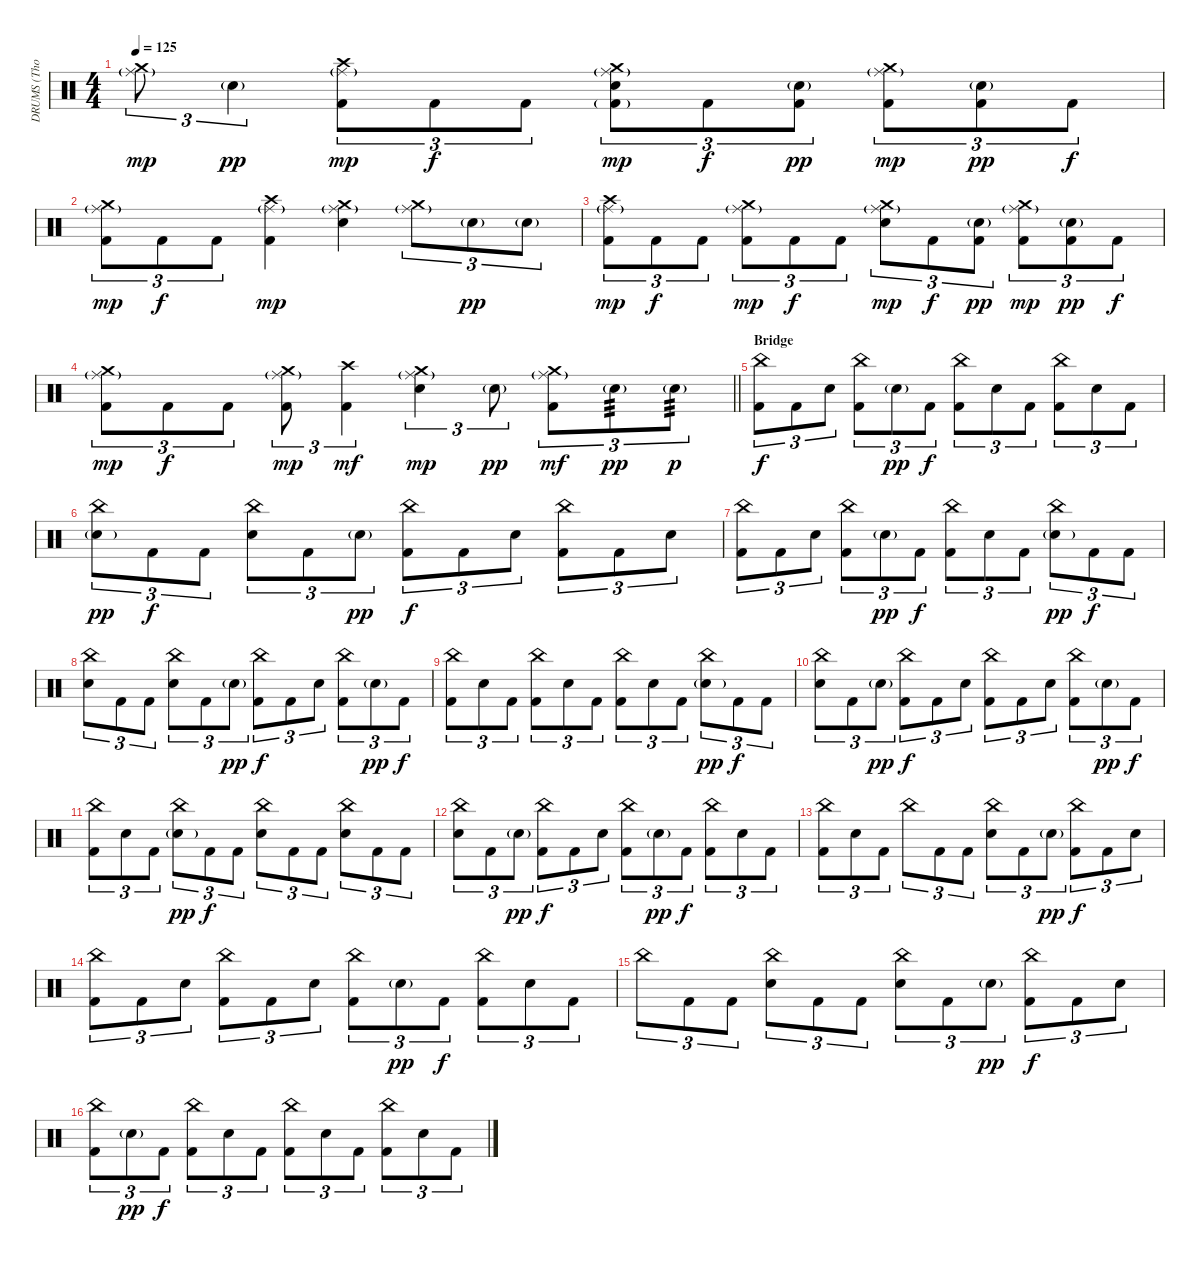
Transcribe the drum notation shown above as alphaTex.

\track ("DRUMS (Thomas Haake)" "DRUMS (Tho") {instrument percussion}
\staff {score}
\articulation defaults
\ts (4 4)
\tempo 125
\clef neutral
\ks c
("Crash medium (hit)" "Ride (middle)"{g}).8{tu (3 2) dy mp} "Electric Snare (hit)"{g}.4{tu (3 2) dy pp} ("Crash high (hit)" "Ride (middle)"{g} "Kick (hit) 2").8{tu (3 2) dy mp} "Kick (hit) 2".8{tu (3 2) dy f} "Kick (hit) 2".8{tu (3 2)} ("Crash medium (hit)" "Ride (middle)"{g} "Electric Snare (hit)" "Kick (hit) 2"{g}).8{tu (3 2) dy mp} "Kick (hit) 2".8{tu (3 2) dy f} ("Electric Snare (hit)"{g} "Kick (hit) 2").8{tu (3 2) dy pp} ("Crash medium (hit)" "Ride (middle)"{g} "Kick (hit) 2").8{tu (3 2) dy mp} ("Electric Snare (hit)"{g} "Kick (hit) 2").8{tu (3 2) dy pp} "Kick (hit) 2".8{tu (3 2) dy f} |
("Crash medium (hit)" "Ride (middle)"{g} "Kick (hit) 2").8{tu (3 2) dy mp} "Kick (hit) 2".8{tu (3 2) dy f} "Kick (hit) 2".8{tu (3 2)} ("Crash high (hit)" "Ride (middle)"{g} "Kick (hit) 2").4{dy mp} ("Crash medium (hit)" "Ride (middle)"{g} "Electric Snare (hit)").4 ("Crash medium (hit)" "Ride (middle)"{g}).8{tu (3 2)} "Electric Snare (hit)"{g}.8{tu (3 2) dy pp} "Electric Snare (hit)"{g}.8{tu (3 2)} |
("Crash high (hit)" "Ride (middle)"{g} "Kick (hit) 2").8{tu (3 2) dy mp} "Kick (hit) 2".8{tu (3 2) dy f} "Kick (hit) 2".8{tu (3 2)} ("Crash medium (hit)" "Ride (middle)"{g} "Kick (hit) 2").8{tu (3 2) dy mp} "Kick (hit) 2".8{tu (3 2) dy f} "Kick (hit) 2".8{tu (3 2)} ("Crash medium (hit)" "Ride (middle)"{g} "Electric Snare (hit)").8{tu (3 2) dy mp} "Kick (hit) 2".8{tu (3 2) dy f} ("Electric Snare (hit)"{g} "Kick (hit) 2").8{tu (3 2) dy pp} ("Crash medium (hit)" "Ride (middle)"{g} "Kick (hit) 2").8{tu (3 2) dy mp} ("Electric Snare (hit)"{g} "Kick (hit) 2").8{tu (3 2) dy pp} "Kick (hit) 2".8{tu (3 2) dy f} |
\barLineRight lightlight
("Crash medium (hit)" "Ride (middle)"{g} "Kick (hit) 2").8{tu (3 2) dy mp} "Kick (hit) 2".8{tu (3 2) dy f} "Kick (hit) 2".8{tu (3 2)} ("Crash medium (hit)" "Ride (middle)"{g} "Kick (hit) 2").8{tu (3 2) dy mp} ("Crash high (hit)" "Kick (hit) 2").4{tu (3 2) dy mf} ("Crash medium (hit)" "Ride (middle)"{g} "Electric Snare (hit)").4{tu (3 2) dy mp} "Electric Snare (hit)"{g}.8{tu (3 2) dy pp} ("Crash medium (hit)" "Ride (middle)"{g} "Kick (hit) 2").8{tu (3 2) dy mf} "Electric Snare (hit)"{g}.8{tu (3 2) tp 3 dy pp} "Electric Snare (hit)"{g}.8{tu (3 2) tp 3 dy p} |
\section ("" "Bridge")
("China (hit)" "Kick (hit) 2").8{tu (3 2) dy f} "Kick (hit) 2".8{tu (3 2)} "Electric Snare (hit)".8{tu (3 2)} ("China (hit)" "Kick (hit) 2").8{tu (3 2)} "Electric Snare (hit)"{g}.8{tu (3 2) dy pp} "Kick (hit) 2".8{tu (3 2) dy f} ("China (hit)" "Kick (hit) 2").8{tu (3 2)} "Electric Snare (hit)".8{tu (3 2)} "Kick (hit) 2".8{tu (3 2)} ("China (hit)" "Kick (hit) 2").8{tu (3 2)} "Electric Snare (hit)".8{tu (3 2)} "Kick (hit) 2".8{tu (3 2)} |
("China (hit)" "Electric Snare (hit)"{g}).8{tu (3 2) dy pp} "Kick (hit) 2".8{tu (3 2) dy f} "Kick (hit) 2".8{tu (3 2)} ("China (hit)" "Electric Snare (hit)").8{tu (3 2)} "Kick (hit) 2".8{tu (3 2)} "Electric Snare (hit)"{g}.8{tu (3 2) dy pp} ("China (hit)" "Kick (hit) 2").8{tu (3 2) dy f} "Kick (hit) 2".8{tu (3 2)} "Electric Snare (hit)".8{tu (3 2)} ("China (hit)" "Kick (hit) 2").8{tu (3 2)} "Kick (hit) 2".8{tu (3 2)} "Electric Snare (hit)".8{tu (3 2)} |
("China (hit)" "Kick (hit) 2").8{tu (3 2)} "Kick (hit) 2".8{tu (3 2)} "Electric Snare (hit)".8{tu (3 2)} ("China (hit)" "Kick (hit) 2").8{tu (3 2)} "Electric Snare (hit)"{g}.8{tu (3 2) dy pp} "Kick (hit) 2".8{tu (3 2) dy f} ("China (hit)" "Kick (hit) 2").8{tu (3 2)} "Electric Snare (hit)".8{tu (3 2)} "Kick (hit) 2".8{tu (3 2)} ("China (hit)" "Electric Snare (hit)"{g}).8{tu (3 2) dy pp} "Kick (hit) 2".8{tu (3 2) dy f} "Kick (hit) 2".8{tu (3 2)} |
("China (hit)" "Electric Snare (hit)").8{tu (3 2)} "Kick (hit) 2".8{tu (3 2)} "Kick (hit) 2".8{tu (3 2)} ("China (hit)" "Electric Snare (hit)").8{tu (3 2)} "Kick (hit) 2".8{tu (3 2)} "Electric Snare (hit)"{g}.8{tu (3 2) dy pp} ("China (hit)" "Kick (hit) 2").8{tu (3 2) dy f} "Kick (hit) 2".8{tu (3 2)} "Electric Snare (hit)".8{tu (3 2)} ("China (hit)" "Kick (hit) 2").8{tu (3 2)} "Electric Snare (hit)"{g}.8{tu (3 2) dy pp} "Kick (hit) 2".8{tu (3 2) dy f} |
("China (hit)" "Kick (hit) 2").8{tu (3 2)} "Electric Snare (hit)".8{tu (3 2)} "Kick (hit) 2".8{tu (3 2)} ("China (hit)" "Kick (hit) 2").8{tu (3 2)} "Electric Snare (hit)".8{tu (3 2)} "Kick (hit) 2".8{tu (3 2)} ("China (hit)" "Kick (hit) 2").8{tu (3 2)} "Electric Snare (hit)".8{tu (3 2)} "Kick (hit) 2".8{tu (3 2)} ("China (hit)" "Electric Snare (hit)"{g}).8{tu (3 2) dy pp} "Kick (hit) 2".8{tu (3 2) dy f} "Kick (hit) 2".8{tu (3 2)} |
("China (hit)" "Electric Snare (hit)").8{tu (3 2)} "Kick (hit) 2".8{tu (3 2)} "Electric Snare (hit)"{g}.8{tu (3 2) dy pp} ("China (hit)" "Kick (hit) 2").8{tu (3 2) dy f} "Kick (hit) 2".8{tu (3 2)} "Electric Snare (hit)".8{tu (3 2)} ("China (hit)" "Kick (hit) 2").8{tu (3 2)} "Kick (hit) 2".8{tu (3 2)} "Electric Snare (hit)".8{tu (3 2)} ("China (hit)" "Kick (hit) 2").8{tu (3 2)} "Electric Snare (hit)"{g}.8{tu (3 2) dy pp} "Kick (hit) 2".8{tu (3 2) dy f} |
("China (hit)" "Kick (hit) 2").8{tu (3 2)} "Electric Snare (hit)".8{tu (3 2)} "Kick (hit) 2".8{tu (3 2)} ("China (hit)" "Electric Snare (hit)"{g}).8{tu (3 2) dy pp} "Kick (hit) 2".8{tu (3 2) dy f} "Kick (hit) 2".8{tu (3 2)} ("China (hit)" "Electric Snare (hit)").8{tu (3 2)} "Kick (hit) 2".8{tu (3 2)} "Kick (hit) 2".8{tu (3 2)} ("China (hit)" "Electric Snare (hit)").8{tu (3 2)} "Kick (hit) 2".8{tu (3 2)} "Kick (hit) 2".8{tu (3 2)} |
("China (hit)" "Electric Snare (hit)").8{tu (3 2)} "Kick (hit) 2".8{tu (3 2)} "Electric Snare (hit)"{g}.8{tu (3 2) dy pp} ("China (hit)" "Kick (hit) 2").8{tu (3 2) dy f} "Kick (hit) 2".8{tu (3 2)} "Electric Snare (hit)".8{tu (3 2)} ("China (hit)" "Kick (hit) 2").8{tu (3 2)} "Electric Snare (hit)"{g}.8{tu (3 2) dy pp} "Kick (hit) 2".8{tu (3 2) dy f} ("China (hit)" "Kick (hit) 2").8{tu (3 2)} "Electric Snare (hit)".8{tu (3 2)} "Kick (hit) 2".8{tu (3 2)} |
("China (hit)" "Kick (hit) 2").8{tu (3 2)} "Electric Snare (hit)".8{tu (3 2)} "Kick (hit) 2".8{tu (3 2)} "China (hit)".8{tu (3 2)} "Kick (hit) 2".8{tu (3 2)} "Kick (hit) 2".8{tu (3 2)} ("China (hit)" "Electric Snare (hit)").8{tu (3 2)} "Kick (hit) 2".8{tu (3 2)} "Electric Snare (hit)"{g}.8{tu (3 2) dy pp} ("China (hit)" "Kick (hit) 2").8{tu (3 2) dy f} "Kick (hit) 2".8{tu (3 2)} "Electric Snare (hit)".8{tu (3 2)} |
("China (hit)" "Kick (hit) 2").8{tu (3 2)} "Kick (hit) 2".8{tu (3 2)} "Electric Snare (hit)".8{tu (3 2)} ("China (hit)" "Kick (hit) 2").8{tu (3 2)} "Kick (hit) 2".8{tu (3 2)} "Electric Snare (hit)".8{tu (3 2)} ("China (hit)" "Kick (hit) 2").8{tu (3 2)} "Electric Snare (hit)"{g}.8{tu (3 2) dy pp} "Kick (hit) 2".8{tu (3 2) dy f} ("China (hit)" "Kick (hit) 2").8{tu (3 2)} "Electric Snare (hit)".8{tu (3 2)} "Kick (hit) 2".8{tu (3 2)} |
"China (hit)".8{tu (3 2)} "Kick (hit) 2".8{tu (3 2)} "Kick (hit) 2".8{tu (3 2)} ("China (hit)" "Electric Snare (hit)").8{tu (3 2)} "Kick (hit) 2".8{tu (3 2)} "Kick (hit) 2".8{tu (3 2)} ("China (hit)" "Electric Snare (hit)").8{tu (3 2)} "Kick (hit) 2".8{tu (3 2)} "Electric Snare (hit)"{g}.8{tu (3 2) dy pp} ("China (hit)" "Kick (hit) 2").8{tu (3 2) dy f} "Kick (hit) 2".8{tu (3 2)} "Electric Snare (hit)".8{tu (3 2)} |
("China (hit)" "Kick (hit) 2").8{tu (3 2)} "Electric Snare (hit)"{g}.8{tu (3 2) dy pp} "Kick (hit) 2".8{tu (3 2) dy f} ("China (hit)" "Kick (hit) 2").8{tu (3 2)} "Electric Snare (hit)".8{tu (3 2)} "Kick (hit) 2".8{tu (3 2)} ("China (hit)" "Kick (hit) 2").8{tu (3 2)} "Electric Snare (hit)".8{tu (3 2)} "Kick (hit) 2".8{tu (3 2)} ("China (hit)" "Kick (hit) 2").8{tu (3 2)} "Electric Snare (hit)".8{tu (3 2)} "Kick (hit) 2".8{tu (3 2)}
